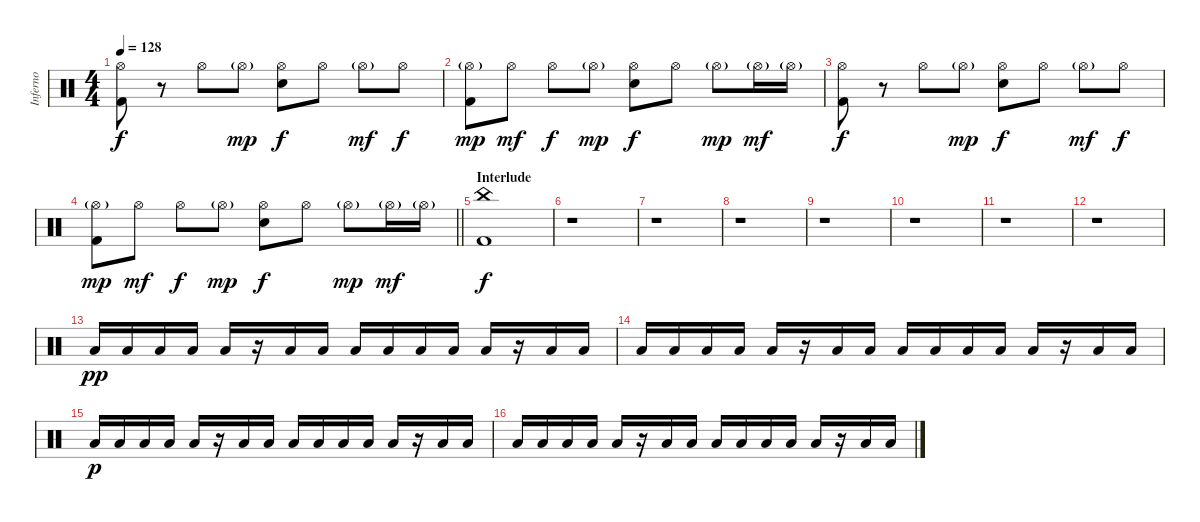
\track ("Inferno" "Inferno") {instrument percussion}
\staff {score}
\articulation defaults
\ts (4 4)
\tempo 128
\clef neutral
\ks c
("Hi-Hat (open)" "Kick (hit) 2").8{dy f} r.8 "Hi-Hat (open)".8 "Hi-Hat (open)"{g}.8{dy mp} ("Hi-Hat (open)" "Snare (hit) 2").8{dy f} "Hi-Hat (open)".8 "Hi-Hat (open)"{g}.8{dy mf} "Hi-Hat (open)".8{dy f} |
("Hi-Hat (open)"{g} "Kick (hit) 2").8{dy mp} "Hi-Hat (open)".8{dy mf} "Hi-Hat (open)".8{dy f} "Hi-Hat (open)"{g}.8{dy mp} ("Hi-Hat (open)" "Snare (hit) 2").8{dy f} "Hi-Hat (open)".8 "Hi-Hat (open)"{g}.8{dy mp} "Hi-Hat (open)"{g}.16{dy mf} "Hi-Hat (open)"{g}.16 |
("Hi-Hat (open)" "Kick (hit) 2").8{dy f} r.8 "Hi-Hat (open)".8 "Hi-Hat (open)"{g}.8{dy mp} ("Hi-Hat (open)" "Snare (hit) 2").8{dy f} "Hi-Hat (open)".8 "Hi-Hat (open)"{g}.8{dy mf} "Hi-Hat (open)".8{dy f} |
\barLineRight lightlight
("Hi-Hat (open)"{g} "Kick (hit) 2").8{dy mp} "Hi-Hat (open)".8{dy mf} "Hi-Hat (open)".8{dy f} "Hi-Hat (open)"{g}.8{dy mp} ("Hi-Hat (open)" "Snare (hit) 2").8{dy f} "Hi-Hat (open)".8 "Hi-Hat (open)"{g}.8{dy mp} "Hi-Hat (open)"{g}.16{dy mf} "Hi-Hat (open)"{g}.16 |
\section ("" "Interlude")
("China (hit)" "Kick (hit) 2").1{dy f} |
r.1 |
r.1 |
r.1 |
r.1 |
r.1 |
r.1 |
r.1 |
"Low Floor Tom (hit)".16{dy pp} "Low Floor Tom (hit)".16 "Low Floor Tom (hit)".16 "Low Floor Tom (hit)".16 "Low Floor Tom (hit)".16 r.16 "Low Floor Tom (hit)".16 "Low Floor Tom (hit)".16 "Low Floor Tom (hit)".16 "Low Floor Tom (hit)".16 "Low Floor Tom (hit)".16 "Low Floor Tom (hit)".16 "Low Floor Tom (hit)".16 r.16 "Low Floor Tom (hit)".16 "Low Floor Tom (hit)".16 |
"Low Floor Tom (hit)".16 "Low Floor Tom (hit)".16 "Low Floor Tom (hit)".16 "Low Floor Tom (hit)".16 "Low Floor Tom (hit)".16 r.16 "Low Floor Tom (hit)".16 "Low Floor Tom (hit)".16 "Low Floor Tom (hit)".16 "Low Floor Tom (hit)".16 "Low Floor Tom (hit)".16 "Low Floor Tom (hit)".16 "Low Floor Tom (hit)".16 r.16 "Low Floor Tom (hit)".16 "Low Floor Tom (hit)".16 |
"Low Floor Tom (hit)".16{dy p} "Low Floor Tom (hit)".16 "Low Floor Tom (hit)".16 "Low Floor Tom (hit)".16 "Low Floor Tom (hit)".16 r.16 "Low Floor Tom (hit)".16 "Low Floor Tom (hit)".16 "Low Floor Tom (hit)".16 "Low Floor Tom (hit)".16 "Low Floor Tom (hit)".16 "Low Floor Tom (hit)".16 "Low Floor Tom (hit)".16 r.16 "Low Floor Tom (hit)".16 "Low Floor Tom (hit)".16 |
"Low Floor Tom (hit)".16 "Low Floor Tom (hit)".16 "Low Floor Tom (hit)".16 "Low Floor Tom (hit)".16 "Low Floor Tom (hit)".16 r.16 "Low Floor Tom (hit)".16 "Low Floor Tom (hit)".16 "Low Floor Tom (hit)".16 "Low Floor Tom (hit)".16 "Low Floor Tom (hit)".16 "Low Floor Tom (hit)".16 "Low Floor Tom (hit)".16 r.16 "Low Floor Tom (hit)".16 "Low Floor Tom (hit)".16
